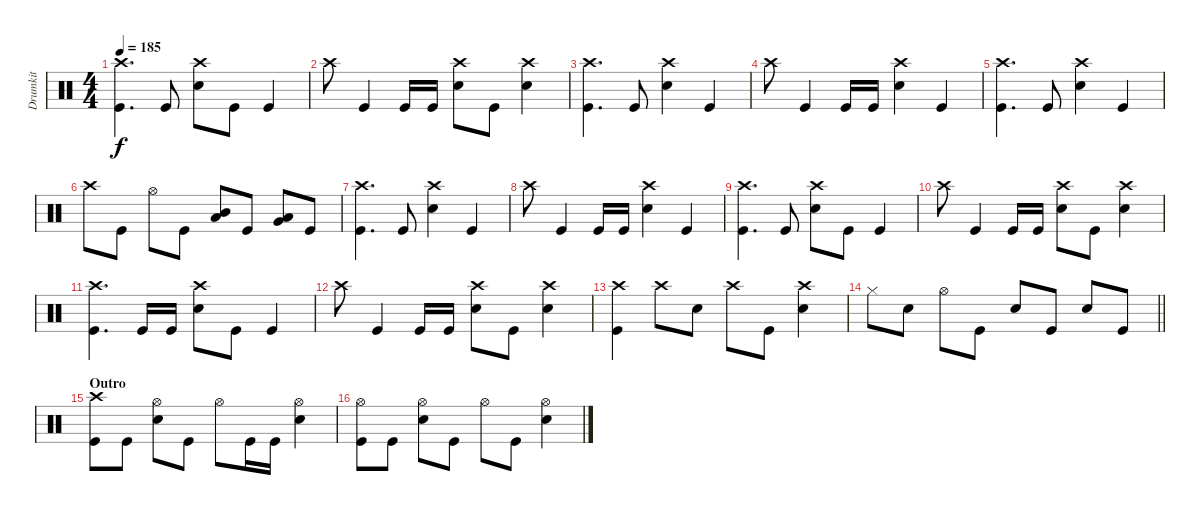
\track ("Drumkit" "Drumkit") {instrument percussion}
\staff {score}
\articulation defaults
\ts (4 4)
\tempo 185
\clef neutral
\ks c
("Crash high (hit)" "Kick (hit)").4{d dy f} "Kick (hit)".8 ("Snare (hit) 2" "Crash high (hit)").8 "Kick (hit)".8 "Kick (hit)".4 |
"Crash high (hit)".8 "Kick (hit)".4 "Kick (hit)".16 "Kick (hit)".16 ("Crash high (hit)" "Snare (hit) 2").8 "Kick (hit)".8 ("Crash high (hit)" "Snare (hit) 2").4 |
("Crash high (hit)" "Kick (hit)").4{d} "Kick (hit)".8 ("Snare (hit) 2" "Crash high (hit)").4 "Kick (hit)".4 |
"Crash high (hit)".8 "Kick (hit)".4 "Kick (hit)".16 "Kick (hit)".16 ("Snare (hit) 2" "Crash high (hit)").4 "Kick (hit)".4 |
("Crash high (hit)" "Kick (hit)").4{d} "Kick (hit)".8 ("Snare (hit) 2" "Crash high (hit)").4 "Kick (hit)".4 |
"Crash high (hit)".8 "Kick (hit)".8 "Hi-Hat (open)".8 "Kick (hit)".8 ("Mid Tom (hit)" "Low Tom (hit)").8 "Kick (hit)".8 ("Low Floor Tom (hit)" "Very Low Tom (hit)").8 "Kick (hit)".8 |
("Crash high (hit)" "Kick (hit)").4{d} "Kick (hit)".8 ("Snare (hit) 2" "Crash high (hit)").4 "Kick (hit)".4 |
"Crash high (hit)".8 "Kick (hit)".4 "Kick (hit)".16 "Kick (hit)".16 ("Snare (hit) 2" "Crash high (hit)").4 "Kick (hit)".4 |
("Crash high (hit)" "Kick (hit)").4{d} "Kick (hit)".8 ("Snare (hit) 2" "Crash high (hit)").8 "Kick (hit)".8 "Kick (hit)".4 |
"Crash high (hit)".8 "Kick (hit)".4 "Kick (hit)".16 "Kick (hit)".16 ("Crash high (hit)" "Snare (hit) 2").8 "Kick (hit)".8 ("Crash high (hit)" "Snare (hit) 2").4 |
("Crash high (hit)" "Kick (hit)").4{d} "Kick (hit)".16 "Kick (hit)".16 ("Snare (hit) 2" "Crash high (hit)").8 "Kick (hit)".8 "Kick (hit)".4 |
"Crash high (hit)".8 "Kick (hit)".4 "Kick (hit)".16 "Kick (hit)".16 ("Crash high (hit)" "Snare (hit) 2").8 "Kick (hit)".8 ("Crash high (hit)" "Snare (hit) 2").4 |
("Crash high (hit)" "Kick (hit)").4 "Crash high (hit)".8 "Snare (hit) 2".8 "Crash high (hit)".8 "Kick (hit)".8 ("Snare (hit) 2" "Crash high (hit)").4 |
\barLineRight lightlight "Hi-Hat (closed)".8 "Snare (hit) 2".8 "Hi-Hat (open)".8 "Kick (hit)".8 "Snare (hit) 2".8 "Kick (hit)".8 "Snare (hit) 2".8 "Kick (hit)".8
|
\section ("" "Outro")
("Crash high (hit)" "Kick (hit)").8 "Kick (hit)".8 ("Snare (hit) 2" "Hi-Hat (open)").8 "Kick (hit)".8 "Hi-Hat (open)".8 "Kick (hit)".16 "Kick (hit)".16 ("Snare (hit) 2" "Hi-Hat (open)").4 |
("Hi-Hat (open)" "Kick (hit)").8 "Kick (hit)".8 ("Snare (hit) 2" "Hi-Hat (open)").8 "Kick (hit)".8 "Hi-Hat (open)".8 "Kick (hit)".8 ("Snare (hit) 2" "Hi-Hat (open)").4
